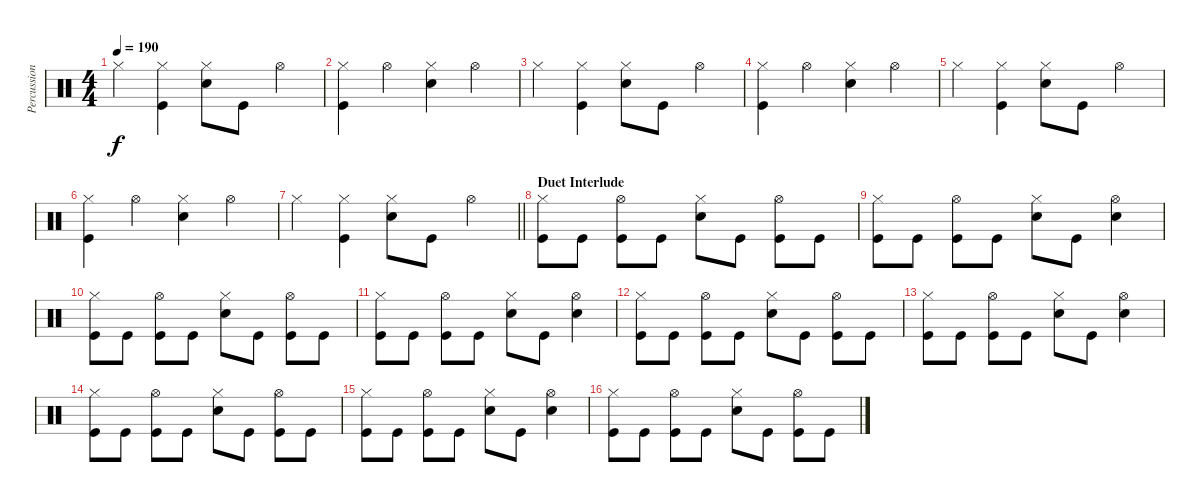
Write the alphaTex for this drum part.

\track ("Percussion" "Percussion") {instrument percussion}
\staff {score}
\articulation defaults
\ts (4 4)
\tempo 190
\clef neutral
\ks c "Hi-Hat (closed)".4{dy f}
("Hi-Hat (closed)" "Kick (hit)").4 ("Hi-Hat (closed)" "Snare (hit) 2").8 "Kick (hit)".8 "Hi-Hat (open)".4 |
("Hi-Hat (closed)" "Kick (hit)").4 "Hi-Hat (open)".4 ("Hi-Hat (closed)" "Snare (hit) 2").4 "Hi-Hat (open)".4 |
"Hi-Hat (closed)".4 ("Hi-Hat (closed)" "Kick (hit)").4 ("Hi-Hat (closed)" "Snare (hit) 2").8 "Kick (hit)".8 "Hi-Hat (open)".4 |
("Hi-Hat (closed)" "Kick (hit)").4 "Hi-Hat (open)".4 ("Hi-Hat (closed)" "Snare (hit) 2").4 "Hi-Hat (open)".4 |
"Hi-Hat (closed)".4 ("Hi-Hat (closed)" "Kick (hit)").4 ("Hi-Hat (closed)" "Snare (hit) 2").8 "Kick (hit)".8 "Hi-Hat (open)".4 |
("Hi-Hat (closed)" "Kick (hit)").4 "Hi-Hat (open)".4 ("Hi-Hat (closed)" "Snare (hit) 2").4 "Hi-Hat (open)".4 |
\barLineRight lightlight "Hi-Hat (closed)".4
("Hi-Hat (closed)" "Kick (hit)").4 ("Hi-Hat (closed)" "Snare (hit) 2").8 "Kick (hit)".8 "Hi-Hat (open)".4 |
\section ("" "Duet Interlude")
("Hi-Hat (closed)" "Kick (hit)").8 "Kick (hit)".8 ("Hi-Hat (open)" "Kick (hit)").8 "Kick (hit)".8 ("Hi-Hat (closed)" "Snare (hit) 2").8 "Kick (hit)".8 ("Hi-Hat (open)" "Kick (hit)").8 "Kick (hit)".8 |
("Hi-Hat (closed)" "Kick (hit)").8 "Kick (hit)".8 ("Hi-Hat (open)" "Kick (hit)").8 "Kick (hit)".8 ("Hi-Hat (closed)" "Snare (hit) 2").8 "Kick (hit)".8 ("Hi-Hat (open)" "Snare (hit) 2").4 |
("Hi-Hat (closed)" "Kick (hit)").8 "Kick (hit)".8 ("Hi-Hat (open)" "Kick (hit)").8 "Kick (hit)".8 ("Hi-Hat (closed)" "Snare (hit) 2").8 "Kick (hit)".8 ("Hi-Hat (open)" "Kick (hit)").8 "Kick (hit)".8 |
("Hi-Hat (closed)" "Kick (hit)").8 "Kick (hit)".8 ("Hi-Hat (open)" "Kick (hit)").8 "Kick (hit)".8 ("Hi-Hat (closed)" "Snare (hit) 2").8 "Kick (hit)".8 ("Hi-Hat (open)" "Snare (hit) 2").4 |
("Hi-Hat (closed)" "Kick (hit)").8 "Kick (hit)".8 ("Hi-Hat (open)" "Kick (hit)").8 "Kick (hit)".8 ("Hi-Hat (closed)" "Snare (hit) 2").8 "Kick (hit)".8 ("Hi-Hat (open)" "Kick (hit)").8 "Kick (hit)".8 |
("Hi-Hat (closed)" "Kick (hit)").8 "Kick (hit)".8 ("Hi-Hat (open)" "Kick (hit)").8 "Kick (hit)".8 ("Hi-Hat (closed)" "Snare (hit) 2").8 "Kick (hit)".8 ("Hi-Hat (open)" "Snare (hit) 2").4 |
("Hi-Hat (closed)" "Kick (hit)").8 "Kick (hit)".8 ("Hi-Hat (open)" "Kick (hit)").8 "Kick (hit)".8 ("Hi-Hat (closed)" "Snare (hit) 2").8 "Kick (hit)".8 ("Hi-Hat (open)" "Kick (hit)").8 "Kick (hit)".8 |
("Hi-Hat (closed)" "Kick (hit)").8 "Kick (hit)".8 ("Hi-Hat (open)" "Kick (hit)").8 "Kick (hit)".8 ("Hi-Hat (closed)" "Snare (hit) 2").8 "Kick (hit)".8 ("Hi-Hat (open)" "Snare (hit) 2").4 |
("Hi-Hat (closed)" "Kick (hit)").8 "Kick (hit)".8 ("Hi-Hat (open)" "Kick (hit)").8 "Kick (hit)".8 ("Hi-Hat (closed)" "Snare (hit) 2").8 "Kick (hit)".8 ("Hi-Hat (open)" "Kick (hit)").8 "Kick (hit)".8
